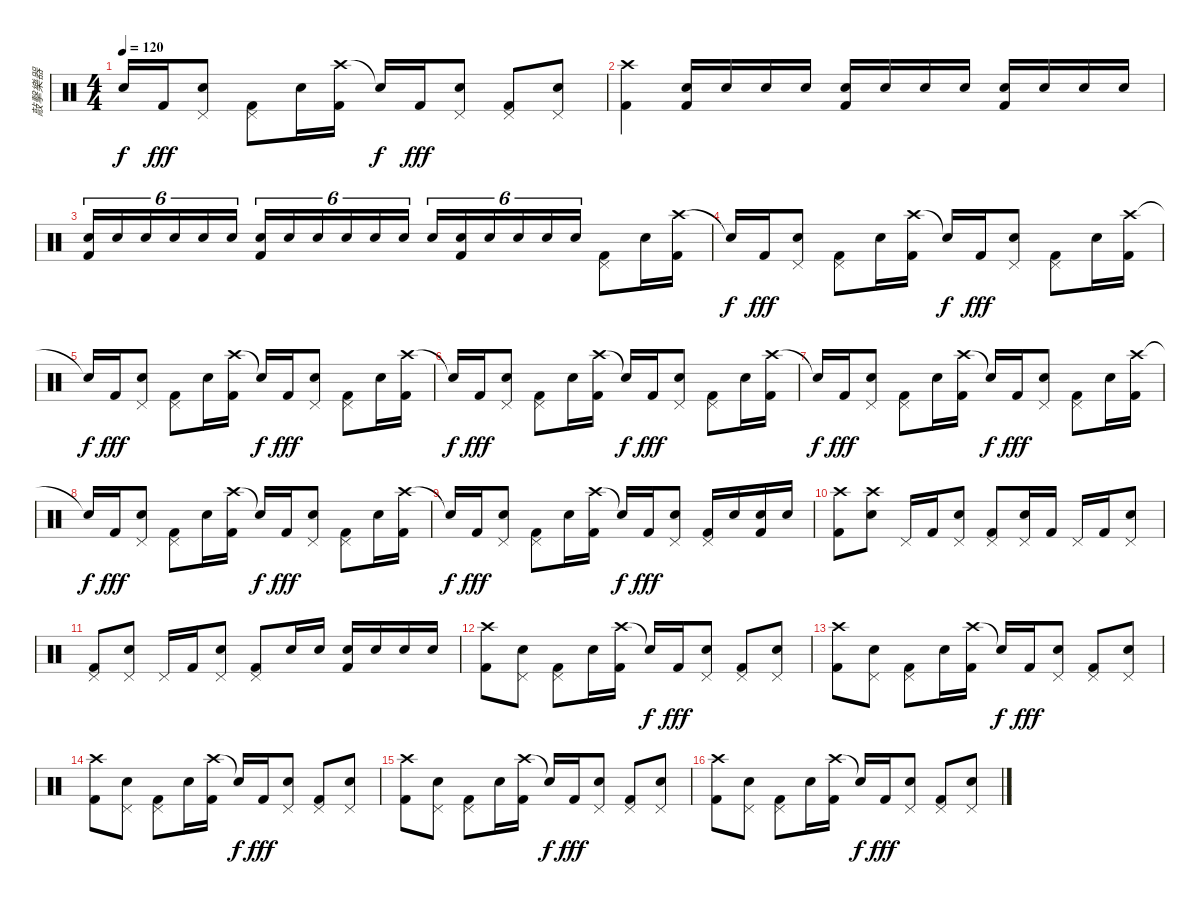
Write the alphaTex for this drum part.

\track ("敲擊樂器" "敲擊樂器") {instrument percussion}
\staff {score}
\articulation defaults
\ts (4 4)
\tempo 120
\clef neutral
\ks c "Snare (hit)"{t}.16{dy f} "Kick (hit) 2".16{dy fff}
("Pedal Hi-Hat (hit)" "Snare (hit) 2").8 ("Pedal Hi-Hat (hit)" "Kick (hit) 2").8 "Snare (hit) 2".16 ("Crash high (hit)" "Kick (hit) 2").16 "Snare (hit)"{t}.16{dy f} "Kick (hit) 2".16{dy fff} ("Pedal Hi-Hat (hit)" "Snare (hit) 2").8 ("Pedal Hi-Hat (hit)" "Kick (hit) 2").8 ("Pedal Hi-Hat (hit)" "Snare (hit) 2").8 |
("Crash high (hit)" "Kick (hit) 2").4 ("Snare (hit) 2" "Kick (hit) 2").16 "Snare (hit) 2".16 "Snare (hit) 2".16 "Snare (hit) 2".16 ("Snare (hit) 2" "Kick (hit) 2").16 "Snare (hit) 2".16 "Snare (hit) 2".16 "Snare (hit) 2".16 ("Snare (hit) 2" "Kick (hit) 2").16 "Snare (hit) 2".16 "Snare (hit) 2".16 "Snare (hit) 2".16 |
("Snare (hit) 2" "Kick (hit) 2").16{tu (6 4)} "Snare (hit) 2".16{tu (6 4)} "Snare (hit) 2".16{tu (6 4)} "Snare (hit) 2".16{tu (6 4)} "Snare (hit) 2".16{tu (6 4)} "Snare (hit) 2".16{tu (6 4)} ("Snare (hit) 2" "Kick (hit) 2").16{tu (6 4)} "Snare (hit) 2".16{tu (6 4)} "Snare (hit) 2".16{tu (6 4)} "Snare (hit) 2".16{tu (6 4)} "Snare (hit) 2".16{tu (6 4)} "Snare (hit) 2".16{tu (6 4)} "Snare (hit) 2".16{tu (6 4)} ("Snare (hit) 2" "Kick (hit) 2").16{tu (6 4)} "Snare (hit) 2".16{tu (6 4)} "Snare (hit) 2".16{tu (6 4)} "Snare (hit) 2".16{tu (6 4)} "Snare (hit) 2".16{tu (6 4)} ("Pedal Hi-Hat (hit)" "Kick (hit) 2").8 "Snare (hit) 2".16 ("Crash high (hit)" "Kick (hit) 2").16 |
"Snare (hit)"{t}.16{dy f} "Kick (hit) 2".16{dy fff} ("Pedal Hi-Hat (hit)" "Snare (hit) 2").8 ("Pedal Hi-Hat (hit)" "Kick (hit) 2").8 "Snare (hit) 2".16 ("Crash high (hit)" "Kick (hit) 2").16 "Snare (hit)"{t}.16{dy f} "Kick (hit) 2".16{dy fff} ("Pedal Hi-Hat (hit)" "Snare (hit) 2").8 ("Pedal Hi-Hat (hit)" "Kick (hit) 2").8 "Snare (hit) 2".16 ("Crash high (hit)" "Kick (hit) 2").16 |
"Snare (hit)"{t}.16{dy f} "Kick (hit) 2".16{dy fff} ("Pedal Hi-Hat (hit)" "Snare (hit) 2").8 ("Pedal Hi-Hat (hit)" "Kick (hit) 2").8 "Snare (hit) 2".16 ("Crash high (hit)" "Kick (hit) 2").16 "Snare (hit)"{t}.16{dy f} "Kick (hit) 2".16{dy fff} ("Pedal Hi-Hat (hit)" "Snare (hit) 2").8 ("Pedal Hi-Hat (hit)" "Kick (hit) 2").8 "Snare (hit) 2".16 ("Crash high (hit)" "Kick (hit) 2").16 |
"Snare (hit)"{t}.16{dy f} "Kick (hit) 2".16{dy fff} ("Pedal Hi-Hat (hit)" "Snare (hit) 2").8 ("Pedal Hi-Hat (hit)" "Kick (hit) 2").8 "Snare (hit) 2".16 ("Crash high (hit)" "Kick (hit) 2").16 "Snare (hit)"{t}.16{dy f} "Kick (hit) 2".16{dy fff} ("Pedal Hi-Hat (hit)" "Snare (hit) 2").8 ("Pedal Hi-Hat (hit)" "Kick (hit) 2").8 "Snare (hit) 2".16 ("Crash high (hit)" "Kick (hit) 2").16 |
"Snare (hit)"{t}.16{dy f} "Kick (hit) 2".16{dy fff} ("Pedal Hi-Hat (hit)" "Snare (hit) 2").8 ("Pedal Hi-Hat (hit)" "Kick (hit) 2").8 "Snare (hit) 2".16 ("Crash high (hit)" "Kick (hit) 2").16 "Snare (hit)"{t}.16{dy f} "Kick (hit) 2".16{dy fff} ("Pedal Hi-Hat (hit)" "Snare (hit) 2").8 ("Pedal Hi-Hat (hit)" "Kick (hit) 2").8 "Snare (hit) 2".16 ("Crash high (hit)" "Kick (hit) 2").16 |
"Snare (hit)"{t}.16{dy f} "Kick (hit) 2".16{dy fff} ("Pedal Hi-Hat (hit)" "Snare (hit) 2").8 ("Pedal Hi-Hat (hit)" "Kick (hit) 2").8 "Snare (hit) 2".16 ("Crash high (hit)" "Kick (hit) 2").16 "Snare (hit)"{t}.16{dy f} "Kick (hit) 2".16{dy fff} ("Pedal Hi-Hat (hit)" "Snare (hit) 2").8 ("Pedal Hi-Hat (hit)" "Kick (hit) 2").8 "Snare (hit) 2".16 ("Crash high (hit)" "Kick (hit) 2").16 |
"Snare (hit)"{t}.16{dy f} "Kick (hit) 2".16{dy fff} ("Pedal Hi-Hat (hit)" "Snare (hit) 2").8 ("Pedal Hi-Hat (hit)" "Kick (hit) 2").8 "Snare (hit) 2".16 ("Crash high (hit)" "Kick (hit) 2").16 "Snare (hit)"{t}.16{dy f} "Kick (hit) 2".16{dy fff} ("Pedal Hi-Hat (hit)" "Snare (hit) 2").8 ("Pedal Hi-Hat (hit)" "Kick (hit) 2").16 "Snare (hit) 2".16 ("Snare (hit) 2" "Kick (hit) 2").16 "Snare (hit) 2".16 |
("Crash high (hit)" "Kick (hit) 2").8 ("Crash high (hit)" "Snare (hit) 2").8 "Pedal Hi-Hat (hit)".16 "Kick (hit) 2".16 ("Pedal Hi-Hat (hit)" "Snare (hit) 2").8 ("Pedal Hi-Hat (hit)" "Kick (hit) 2").8 ("Pedal Hi-Hat (hit)" "Snare (hit) 2").16 "Kick (hit) 2".16 "Pedal Hi-Hat (hit)".16 "Kick (hit) 2".16 ("Pedal Hi-Hat (hit)" "Snare (hit) 2").8 |
("Pedal Hi-Hat (hit)" "Kick (hit) 2").8 ("Pedal Hi-Hat (hit)" "Snare (hit) 2").8 "Pedal Hi-Hat (hit)".16 "Kick (hit) 2".16 ("Pedal Hi-Hat (hit)" "Snare (hit) 2").8 ("Pedal Hi-Hat (hit)" "Kick (hit) 2").8 "Snare (hit) 2".16 "Snare (hit) 2".16 ("Snare (hit) 2" "Kick (hit) 2").16 "Snare (hit) 2".16 "Snare (hit) 2".16 "Snare (hit) 2".16 |
("Crash high (hit)" "Kick (hit) 2").8 ("Pedal Hi-Hat (hit)" "Snare (hit) 2").8 ("Pedal Hi-Hat (hit)" "Kick (hit) 2").8 "Snare (hit) 2".16 ("Crash high (hit)" "Kick (hit) 2").16 "Snare (hit)"{t}.16{dy f} "Kick (hit) 2".16{dy fff} ("Pedal Hi-Hat (hit)" "Snare (hit) 2").8 ("Pedal Hi-Hat (hit)" "Kick (hit) 2").8 ("Pedal Hi-Hat (hit)" "Snare (hit) 2").8 |
("Crash high (hit)" "Kick (hit) 2").8 ("Pedal Hi-Hat (hit)" "Snare (hit) 2").8 ("Pedal Hi-Hat (hit)" "Kick (hit) 2").8 "Snare (hit) 2".16 ("Crash high (hit)" "Kick (hit) 2").16 "Snare (hit)"{t}.16{dy f} "Kick (hit) 2".16{dy fff} ("Pedal Hi-Hat (hit)" "Snare (hit) 2").8 ("Pedal Hi-Hat (hit)" "Kick (hit) 2").8 ("Pedal Hi-Hat (hit)" "Snare (hit) 2").8 |
("Crash high (hit)" "Kick (hit) 2").8 ("Pedal Hi-Hat (hit)" "Snare (hit) 2").8 ("Pedal Hi-Hat (hit)" "Kick (hit) 2").8 "Snare (hit) 2".16 ("Crash high (hit)" "Kick (hit) 2").16 "Snare (hit)"{t}.16{dy f} "Kick (hit) 2".16{dy fff} ("Pedal Hi-Hat (hit)" "Snare (hit) 2").8 ("Pedal Hi-Hat (hit)" "Kick (hit) 2").8 ("Pedal Hi-Hat (hit)" "Snare (hit) 2").8 |
("Crash high (hit)" "Kick (hit) 2").8 ("Pedal Hi-Hat (hit)" "Snare (hit) 2").8 ("Pedal Hi-Hat (hit)" "Kick (hit) 2").8 "Snare (hit) 2".16 ("Crash high (hit)" "Kick (hit) 2").16 "Snare (hit)"{t}.16{dy f} "Kick (hit) 2".16{dy fff} ("Pedal Hi-Hat (hit)" "Snare (hit) 2").8 ("Pedal Hi-Hat (hit)" "Kick (hit) 2").8 ("Pedal Hi-Hat (hit)" "Snare (hit) 2").8 |
("Crash high (hit)" "Kick (hit) 2").8 ("Pedal Hi-Hat (hit)" "Snare (hit) 2").8 ("Pedal Hi-Hat (hit)" "Kick (hit) 2").8 "Snare (hit) 2".16 ("Crash high (hit)" "Kick (hit) 2").16 "Snare (hit)"{t}.16{dy f} "Kick (hit) 2".16{dy fff} ("Pedal Hi-Hat (hit)" "Snare (hit) 2").8 ("Pedal Hi-Hat (hit)" "Kick (hit) 2").8 ("Pedal Hi-Hat (hit)" "Snare (hit) 2").8
